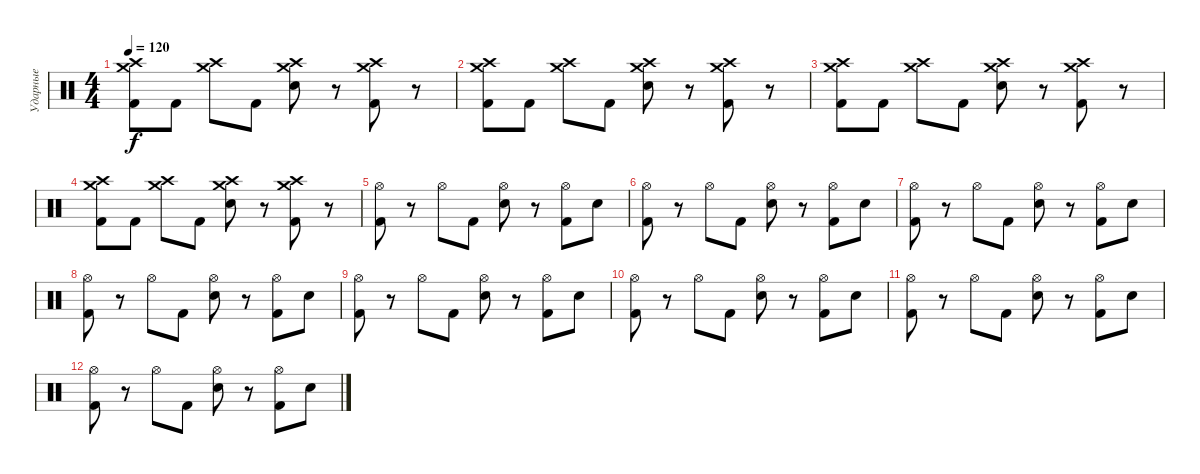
\track ("Ударные" "Ударные") {instrument percussion}
\staff {score}
\articulation defaults
\ts (4 4)
\tempo 120
\clef neutral
\ks c
("Crash high (hit)" "Crash medium (hit)" "Kick (hit) 2").8{dy f} "Kick (hit) 2".8 ("Crash high (hit)" "Crash medium (hit)").8 "Kick (hit) 2".8 ("Crash high (hit)" "Crash medium (hit)" "Electric Snare (hit)").8 r.8 ("Crash high (hit)" "Crash medium (hit)" "Kick (hit) 2").8 r.8 |
("Crash high (hit)" "Crash medium (hit)" "Kick (hit) 2").8 "Kick (hit) 2".8 ("Crash high (hit)" "Crash medium (hit)").8 "Kick (hit) 2".8 ("Crash high (hit)" "Crash medium (hit)" "Electric Snare (hit)").8 r.8 ("Crash high (hit)" "Crash medium (hit)" "Kick (hit) 2").8 r.8 |
("Crash high (hit)" "Crash medium (hit)" "Kick (hit) 2").8 "Kick (hit) 2".8 ("Crash high (hit)" "Crash medium (hit)").8 "Kick (hit) 2".8 ("Crash high (hit)" "Crash medium (hit)" "Electric Snare (hit)").8 r.8 ("Crash high (hit)" "Crash medium (hit)" "Kick (hit) 2").8 r.8 |
("Crash high (hit)" "Crash medium (hit)" "Kick (hit) 2").8 "Kick (hit) 2".8 ("Crash high (hit)" "Crash medium (hit)").8 "Kick (hit) 2".8 ("Crash high (hit)" "Crash medium (hit)" "Electric Snare (hit)").8 r.8 ("Crash high (hit)" "Crash medium (hit)" "Kick (hit) 2").8 r.8 |
("Hi-Hat (open)" "Kick (hit) 2").8 r.8 "Hi-Hat (open)".8 "Kick (hit) 2".8 ("Hi-Hat (open)" "Electric Snare (hit)").8 r.8 ("Hi-Hat (open)" "Kick (hit) 2").8 "Electric Snare (hit)".8 |
("Hi-Hat (open)" "Kick (hit) 2").8 r.8 "Hi-Hat (open)".8 "Kick (hit) 2".8 ("Hi-Hat (open)" "Electric Snare (hit)").8 r.8 ("Hi-Hat (open)" "Kick (hit) 2").8 "Electric Snare (hit)".8 |
("Hi-Hat (open)" "Kick (hit) 2").8 r.8 "Hi-Hat (open)".8 "Kick (hit) 2".8 ("Hi-Hat (open)" "Electric Snare (hit)").8 r.8 ("Hi-Hat (open)" "Kick (hit) 2").8 "Electric Snare (hit)".8 |
("Hi-Hat (open)" "Kick (hit) 2").8 r.8 "Hi-Hat (open)".8 "Kick (hit) 2".8 ("Hi-Hat (open)" "Electric Snare (hit)").8 r.8 ("Hi-Hat (open)" "Kick (hit) 2").8 "Electric Snare (hit)".8 |
("Hi-Hat (open)" "Kick (hit) 2").8 r.8 "Hi-Hat (open)".8 "Kick (hit) 2".8 ("Hi-Hat (open)" "Electric Snare (hit)").8 r.8 ("Hi-Hat (open)" "Kick (hit) 2").8 "Electric Snare (hit)".8 |
("Hi-Hat (open)" "Kick (hit) 2").8 r.8 "Hi-Hat (open)".8 "Kick (hit) 2".8 ("Hi-Hat (open)" "Electric Snare (hit)").8 r.8 ("Hi-Hat (open)" "Kick (hit) 2").8 "Electric Snare (hit)".8 |
("Hi-Hat (open)" "Kick (hit) 2").8 r.8 "Hi-Hat (open)".8 "Kick (hit) 2".8 ("Hi-Hat (open)" "Electric Snare (hit)").8 r.8 ("Hi-Hat (open)" "Kick (hit) 2").8 "Electric Snare (hit)".8 |
("Hi-Hat (open)" "Kick (hit) 2").8 r.8 "Hi-Hat (open)".8 "Kick (hit) 2".8 ("Hi-Hat (open)" "Electric Snare (hit)").8 r.8 ("Hi-Hat (open)" "Kick (hit) 2").8 "Electric Snare (hit)".8
